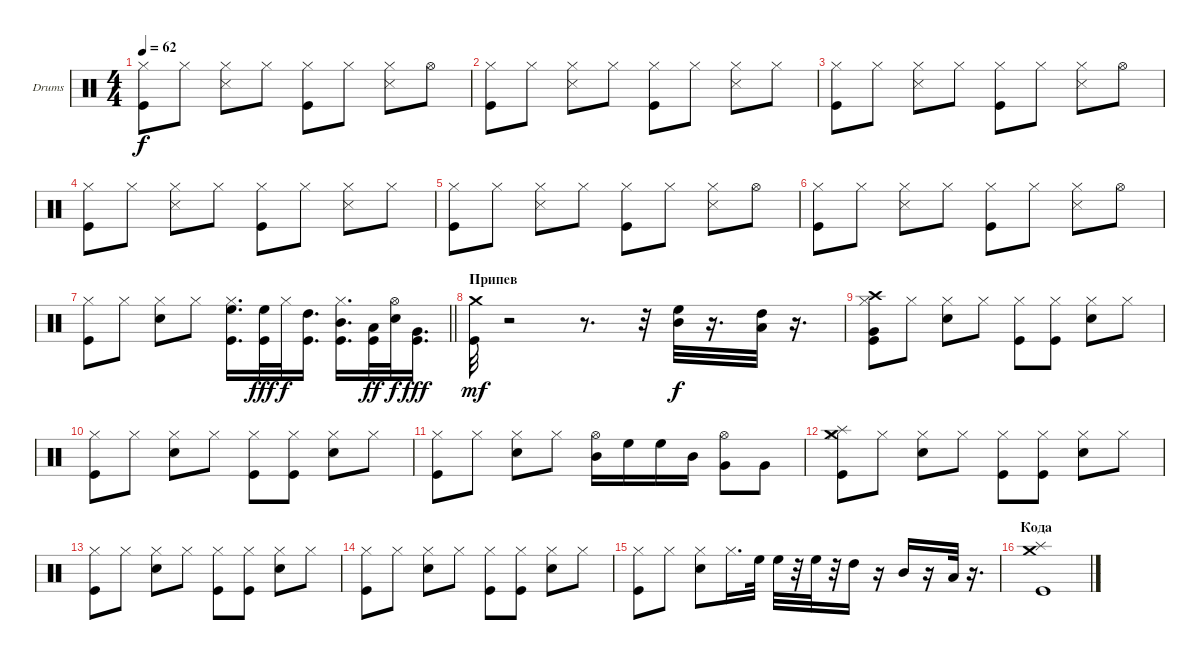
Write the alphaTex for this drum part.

\bracketExtendMode groupsimilarinstruments
\firstSystemTrackNameOrientation horizontal
\otherSystemsTrackNameOrientation horizontal
\track ("Drumkit" "Drums") {instrument percussion}
\staff {score}
\articulation defaults
\ts (4 4)
\tempo 62
\clef neutral
\ks c
("Kick (hit)" "Hi-Hat (closed)").8{dy f} "Hi-Hat (closed)".8 ("Snare (side stick) 3" "Hi-Hat (closed)").8 "Hi-Hat (closed)".8 ("Kick (hit)" "Hi-Hat (closed)").8 "Hi-Hat (closed)".8 ("Snare (side stick) 3" "Hi-Hat (closed)").8 "Hi-Hat (open)".8 |
("Kick (hit)" "Hi-Hat (closed)").8 "Hi-Hat (closed)".8 ("Snare (side stick) 3" "Hi-Hat (closed)").8 "Hi-Hat (closed)".8 ("Kick (hit)" "Hi-Hat (closed)").8 "Hi-Hat (closed)".8 ("Snare (side stick) 3" "Hi-Hat (closed)").8 "Hi-Hat (closed)".8 |
("Kick (hit)" "Hi-Hat (closed)").8 "Hi-Hat (closed)".8 ("Snare (side stick) 3" "Hi-Hat (closed)").8 "Hi-Hat (closed)".8 ("Kick (hit)" "Hi-Hat (closed)").8 "Hi-Hat (closed)".8 ("Snare (side stick) 3" "Hi-Hat (closed)").8 "Hi-Hat (open)".8 |
("Kick (hit)" "Hi-Hat (closed)").8 "Hi-Hat (closed)".8 ("Snare (side stick) 3" "Hi-Hat (closed)").8 "Hi-Hat (closed)".8 ("Kick (hit)" "Hi-Hat (closed)").8 "Hi-Hat (closed)".8 ("Snare (side stick) 3" "Hi-Hat (closed)").8 "Hi-Hat (closed)".8 |
("Kick (hit)" "Hi-Hat (closed)").8 "Hi-Hat (closed)".8 ("Snare (side stick) 3" "Hi-Hat (closed)").8 "Hi-Hat (closed)".8 ("Kick (hit)" "Hi-Hat (closed)").8 "Hi-Hat (closed)".8 ("Snare (side stick) 3" "Hi-Hat (closed)").8 "Hi-Hat (open)".8 |
("Kick (hit)" "Hi-Hat (closed)").8 "Hi-Hat (closed)".8 ("Snare (side stick) 3" "Hi-Hat (closed)").8 "Hi-Hat (closed)".8 ("Kick (hit)" "Hi-Hat (closed)").8 "Hi-Hat (closed)".8 ("Snare (side stick) 3" "Hi-Hat (closed)").8 "Hi-Hat (open)".8 |
\barLineRight lightlight
("Kick (hit)" "Hi-Hat (closed)").8 "Hi-Hat (closed)".8 ("Snare (hit) 2" "Hi-Hat (closed)").8 "Hi-Hat (closed)".8 ("High Floor Tom (hit)" "Hi-Hat (closed)" "Kick (hit)").16{d} ("High Floor Tom (hit)" "Kick (hit)").32{dy fff} "Hi-Hat (closed)".32{dy f} ("High Tom (hit)" "Kick (hit)").16{d} ("Hi-Hat (closed)" "Mid Tom (hit)" "Kick (hit)").16{d} ("Low Tom (hit)" "Kick (hit)").32{dy ff} ("Snare (hit) 2" "Hi-Hat (open)").32{dy f} ("Very Low Tom (hit)" "Kick (hit)").16{d dy fff} |
\section ("" "Припев")
("Crash medium (hit)" "Kick (hit)").32{dy mf} r.2 r.8{d} r.32 ("Mid Tom (hit)" "High Floor Tom (hit)").32{dy f} r.16{d} ("Low Tom (hit)" "High Tom (hit)").32 r.16{d} |
("Very Low Tom (hit)" "Crash high (hit)" "Kick (hit)" "Hi-Hat (closed)").8 "Hi-Hat (closed)".8 ("Snare (hit) 2" "Hi-Hat (closed)").8 "Hi-Hat (closed)".8 ("Kick (hit)" "Hi-Hat (closed)").8 ("Kick (hit)" "Hi-Hat (closed)").8 ("Snare (hit) 2" "Hi-Hat (closed)").8 "Hi-Hat (closed)".8 |
("Kick (hit)" "Hi-Hat (closed)").8 "Hi-Hat (closed)".8 ("Snare (hit) 2" "Hi-Hat (closed)").8 "Hi-Hat (closed)".8 ("Kick (hit)" "Hi-Hat (closed)").8 ("Kick (hit)" "Hi-Hat (closed)").8 ("Snare (hit) 2" "Hi-Hat (closed)").8 "Hi-Hat (closed)".8 |
("Kick (hit)" "Hi-Hat (closed)").8 "Hi-Hat (closed)".8 ("Snare (hit) 2" "Hi-Hat (closed)").8 "Hi-Hat (closed)".8 ("Hi-Hat (open)" "Mid Tom (hit)").16 "High Floor Tom (hit)".16 "High Floor Tom (hit)".16 "Mid Tom (hit)".16 ("Hi-Hat (open)" "Very Low Tom (hit)").8 "Very Low Tom (hit)".8 |
("Kick (hit)" "Hi-Hat (closed)" "Splash (hit)" "Crash medium (hit)").8 "Hi-Hat (closed)".8 ("Snare (hit) 2" "Hi-Hat (closed)").8 "Hi-Hat (closed)".8 ("Kick (hit)" "Hi-Hat (closed)").8 ("Kick (hit)" "Hi-Hat (closed)").8 ("Snare (hit) 2" "Hi-Hat (closed)").8 "Hi-Hat (closed)".8 |
("Kick (hit)" "Hi-Hat (closed)").8 "Hi-Hat (closed)".8 ("Snare (hit) 2" "Hi-Hat (closed)").8 "Hi-Hat (closed)".8 ("Kick (hit)" "Hi-Hat (closed)").8 ("Kick (hit)" "Hi-Hat (closed)").8 ("Snare (hit) 2" "Hi-Hat (closed)").8 "Hi-Hat (closed)".8 |
("Kick (hit)" "Hi-Hat (closed)").8 "Hi-Hat (closed)".8 ("Snare (hit) 2" "Hi-Hat (closed)").8 "Hi-Hat (closed)".8 ("Kick (hit)" "Hi-Hat (closed)").8 ("Kick (hit)" "Hi-Hat (closed)").8 ("Snare (hit) 2" "Hi-Hat (closed)").8 "Hi-Hat (closed)".8 |
("Kick (hit)" "Hi-Hat (closed)").8 "Hi-Hat (closed)".8 ("Snare (hit) 2" "Hi-Hat (closed)").8 "Hi-Hat (closed)".16{d} "High Floor Tom (hit)".32 "High Floor Tom (hit)".32 r.32 "High Floor Tom (hit)".32 r.32 "High Tom (hit)".16 r.16 "Mid Tom (hit)".16 r.16 "Low Tom (hit)".32 r.16{d} |
\section ("" "Кода")
("Splash (hit)" "Crash medium (hit)" "Kick (hit)").1
